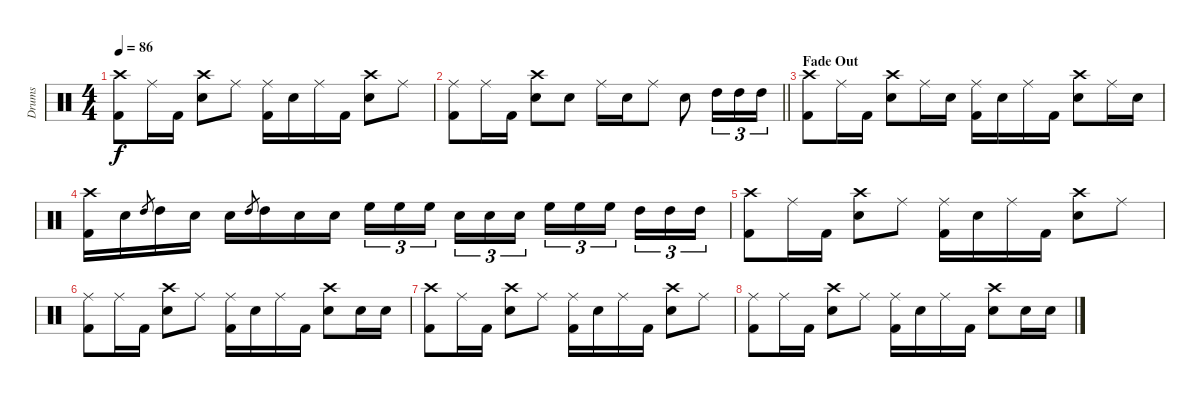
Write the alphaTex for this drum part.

\track ("Drums" "Drums") {instrument percussion}
\staff {score}
\articulation defaults
\ts (4 4)
\tempo 86
\clef neutral
\ks c
("Crash high (hit)" "Kick (hit) 2").8{dy f} "Ride (middle)".16 "Kick (hit) 2".16 ("Crash high (hit)" "Snare (hit) 2").8 "Ride (middle)".8 ("Ride (middle)" "Kick (hit) 2").16 "Snare (hit) 2".16 "Ride (middle)".16 "Kick (hit) 2".16 ("Crash high (hit)" "Snare (hit) 2").8 "Ride (middle)".8 |
\barLineRight lightlight
("Ride (middle)" "Kick (hit) 2").8 "Ride (middle)".16 "Kick (hit) 2".16 ("Crash high (hit)" "Snare (hit) 2").8 "Snare (hit) 2".8 "Ride (middle)".16 "Snare (hit) 2".16 "Ride (middle)".8 "Snare (hit) 2".8 "High Tom (hit)".16{tu (3 2)} "High Tom (hit)".16{tu (3 2)} "High Tom (hit)".16{tu (3 2)} |
\section ("" "Fade Out")
("Crash high (hit)" "Kick (hit) 2").8 "Ride (middle)".16 "Kick (hit) 2".16 ("Crash high (hit)" "Snare (hit) 2").8 "Ride (middle)".16 "Snare (hit) 2".16 ("Ride (middle)" "Kick (hit) 2").16 "Snare (hit) 2".16 "Ride (middle)".16 "Kick (hit) 2".16 ("Crash high (hit)" "Snare (hit) 2").8 "Ride (middle)".16 "Snare (hit) 2".16 |
("Crash high (hit)" "Kick (hit) 2").16 "Snare (hit) 2".16 "High Tom (hit)".8{gr} "High Tom (hit)".16 "Snare (hit) 2".16 "Snare (hit) 2".16 "High Tom (hit)".8{gr} "High Tom (hit)".16 "Snare (hit) 2".16 "Snare (hit) 2".16 "High Floor Tom (hit)".16{tu (3 2)} "High Floor Tom (hit)".16{tu (3 2)} "High Floor Tom (hit)".16{tu (3 2) beam splitsecondary} "Snare (hit) 2".16{tu (3 2)} "Snare (hit) 2".16{tu (3 2)} "Snare (hit) 2".16{tu (3 2)} "High Floor Tom (hit)".16{tu (3 2)} "High Floor Tom (hit)".16{tu (3 2)} "High Floor Tom (hit)".16{tu (3 2) beam splitsecondary} "High Tom (hit)".16{tu (3 2)} "High Tom (hit)".16{tu (3 2)} "High Tom (hit)".16{tu (3 2)} |
("Crash high (hit)" "Kick (hit) 2").8 "Ride (middle)".16 "Kick (hit) 2".16 ("Crash high (hit)" "Snare (hit) 2").8 "Ride (middle)".8 ("Ride (middle)" "Kick (hit) 2").16 "Snare (hit) 2".16 "Ride (middle)".16 "Kick (hit) 2".16 ("Crash high (hit)" "Snare (hit) 2").8 "Ride (middle)".8 |
("Ride (middle)" "Kick (hit) 2").8 "Ride (middle)".16 "Kick (hit) 2".16 ("Crash high (hit)" "Snare (hit) 2").8 "Ride (middle)".8 ("Ride (middle)" "Kick (hit) 2").16 "Snare (hit) 2".16 "Ride (middle)".16 "Kick (hit) 2".16 ("Crash high (hit)" "Snare (hit) 2").8 "Snare (hit) 2".16 "Snare (hit) 2".16 |
("Crash high (hit)" "Kick (hit) 2").8 "Ride (middle)".16 "Kick (hit) 2".16 ("Crash high (hit)" "Snare (hit) 2").8 "Ride (middle)".8 ("Ride (middle)" "Kick (hit) 2").16 "Snare (hit) 2".16 "Ride (middle)".16 "Kick (hit) 2".16 ("Crash high (hit)" "Snare (hit) 2").8 "Ride (middle)".8 |
("Ride (middle)" "Kick (hit) 2").8 "Ride (middle)".16 "Kick (hit) 2".16 ("Crash high (hit)" "Snare (hit) 2").8 "Ride (middle)".8 ("Ride (middle)" "Kick (hit) 2").16 "Snare (hit) 2".16 "Ride (middle)".16 "Kick (hit) 2".16 ("Crash high (hit)" "Snare (hit) 2").8 "Snare (hit) 2".16 "Snare (hit) 2".16
